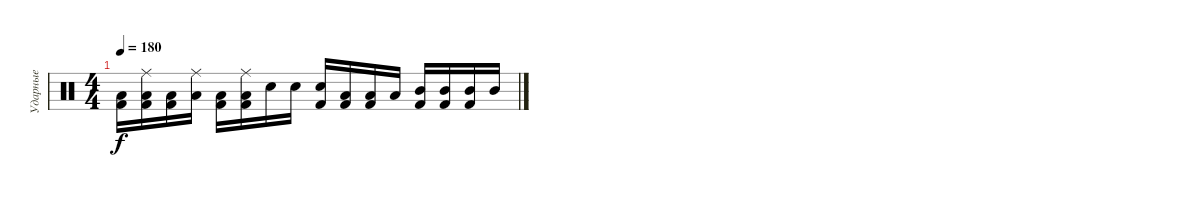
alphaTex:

\track ("Ударные" "Ударные") {instrument percussion}
\staff {score}
\articulation defaults
\ts (4 4)
\tempo 180
\clef neutral
\ks c
("Low Tom (hit)" "Kick (hit) 2").16{dy f} ("Low Tom (hit)" "Ride (middle)" "Kick (hit) 2").16 ("Low Tom (hit)" "Kick (hit) 2").16 ("Low Tom (hit)" "Ride (middle)").16 ("Low Tom (hit)" "Kick (hit) 2").16 ("Low Tom (hit)" "Ride (middle)" "Kick (hit) 2").16 "Electric Snare (hit)".16 "Electric Snare (hit)".16 ("Electric Snare (hit)" "Kick (hit) 2").16 ("Low Tom (hit)" "Kick (hit) 2").16 ("Low Tom (hit)" "Kick (hit) 2").16 "Low Tom (hit)".16 ("Mid Tom (hit)" "Kick (hit) 2").16 ("Mid Tom (hit)" "Kick (hit) 2").16 ("Mid Tom (hit)" "Kick (hit) 2").16 "Mid Tom (hit)".16
